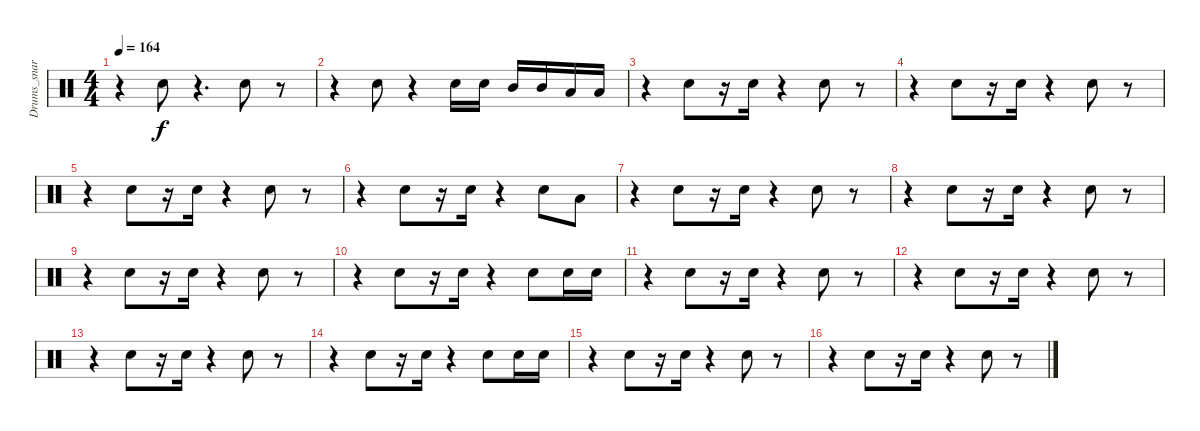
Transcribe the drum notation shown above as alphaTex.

\track ("Drums_snare&tom" "Drums_snar") {instrument percussion}
\staff {score}
\articulation defaults
\ts (4 4)
\tempo 164
\clef neutral
\ks c
r.4{dy f} "Snare (hit) 2".8 r.4{d} "Snare (hit) 2".8 r.8 |
r.4 "Snare (hit) 2".8 r.4 "Snare (hit) 2".16 "Snare (hit) 2".16 "Mid Tom (hit)".16 "Mid Tom (hit)".16 "Low Tom (hit)".16 "Low Tom (hit)".16 |
r.4 "Snare (hit) 2".8 r.16 "Snare (hit) 2".16 r.4 "Snare (hit) 2".8 r.8 |
r.4 "Snare (hit) 2".8 r.16 "Snare (hit) 2".16 r.4 "Snare (hit) 2".8 r.8 |
r.4 "Snare (hit) 2".8 r.16 "Snare (hit) 2".16 r.4 "Snare (hit) 2".8 r.8 |
r.4 "Snare (hit) 2".8 r.16 "Snare (hit) 2".16 r.4 "Snare (hit) 2".8 "Low Tom (hit)".8 |
r.4 "Snare (hit) 2".8 r.16 "Snare (hit) 2".16 r.4 "Snare (hit) 2".8 r.8 |
r.4 "Snare (hit) 2".8 r.16 "Snare (hit) 2".16 r.4 "Snare (hit) 2".8 r.8 |
r.4 "Snare (hit) 2".8 r.16 "Snare (hit) 2".16 r.4 "Snare (hit) 2".8 r.8 |
r.4 "Snare (hit) 2".8 r.16 "Snare (hit) 2".16 r.4 "Snare (hit) 2".8 "Snare (hit) 2".16 "Snare (hit) 2".16 |
r.4 "Snare (hit) 2".8 r.16 "Snare (hit) 2".16 r.4 "Snare (hit) 2".8 r.8 |
r.4 "Snare (hit) 2".8 r.16 "Snare (hit) 2".16 r.4 "Snare (hit) 2".8 r.8 |
r.4 "Snare (hit) 2".8 r.16 "Snare (hit) 2".16 r.4 "Snare (hit) 2".8 r.8 |
r.4 "Snare (hit) 2".8 r.16 "Snare (hit) 2".16 r.4 "Snare (hit) 2".8 "Snare (hit) 2".16 "Snare (hit) 2".16 |
r.4 "Snare (hit) 2".8 r.16 "Snare (hit) 2".16 r.4 "Snare (hit) 2".8 r.8 |
r.4 "Snare (hit) 2".8 r.16 "Snare (hit) 2".16 r.4 "Snare (hit) 2".8 r.8
